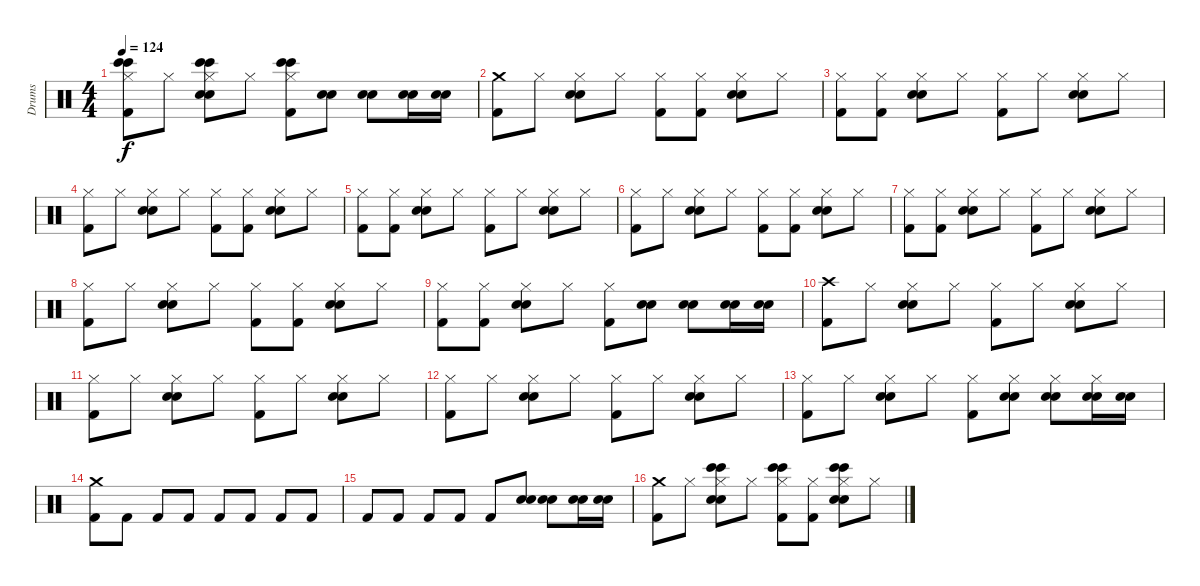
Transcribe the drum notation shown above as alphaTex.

\track ("Drums" "Drums") {instrument percussion}
\staff {score}
\articulation defaults
\ts (4 4)
\tempo 124
\clef neutral
\ks c
("Bongo High (hit)" "Bongo High (hit)" "Hi-Hat (closed)" "Kick (hit) 2").8{dy f} "Hi-Hat (closed)".8 ("Bongo High (hit)" "Electric Snare (hit)" "Snare (hit) 2" "Bongo High (hit)" "Hi-Hat (closed)").8 "Hi-Hat (closed)".8 ("Bongo High (hit)" "Kick (hit) 2" "Bongo High (hit)" "Hi-Hat (closed)").8 ("Snare (hit) 2" "Electric Snare (hit)").8 ("Electric Snare (hit)" "Snare (hit) 2").8 ("Snare (hit) 2" "Electric Snare (hit)").16 ("Snare (hit) 2" "Electric Snare (hit)").16 |
("Crash medium (hit)" "Kick (hit) 2").8 "Hi-Hat (closed)".8 ("Hi-Hat (closed)" "Electric Snare (hit)" "Snare (hit) 2").8 "Hi-Hat (closed)".8 ("Hi-Hat (closed)" "Kick (hit) 2").8 ("Kick (hit) 2" "Hi-Hat (closed)").8 ("Hi-Hat (closed)" "Electric Snare (hit)" "Snare (hit) 2").8 "Hi-Hat (closed)".8 |
("Kick (hit) 2" "Hi-Hat (closed)").8 ("Kick (hit) 2" "Hi-Hat (closed)").8 ("Snare (hit) 2" "Electric Snare (hit)" "Hi-Hat (closed)").8 "Hi-Hat (closed)".8 ("Kick (hit) 2" "Hi-Hat (closed)").8 "Hi-Hat (closed)".8 ("Snare (hit) 2" "Electric Snare (hit)" "Hi-Hat (closed)").8 "Hi-Hat (closed)".8 |
("Hi-Hat (closed)" "Kick (hit) 2").8 "Hi-Hat (closed)".8 ("Snare (hit) 2" "Electric Snare (hit)" "Hi-Hat (closed)").8 "Hi-Hat (closed)".8 ("Kick (hit) 2" "Hi-Hat (closed)").8 ("Kick (hit) 2" "Hi-Hat (closed)").8 ("Snare (hit) 2" "Electric Snare (hit)" "Hi-Hat (closed)").8 "Hi-Hat (closed)".8 |
("Kick (hit) 2" "Hi-Hat (closed)").8 ("Kick (hit) 2" "Hi-Hat (closed)").8 ("Snare (hit) 2" "Electric Snare (hit)" "Hi-Hat (closed)").8 "Hi-Hat (closed)".8 ("Kick (hit) 2" "Hi-Hat (closed)").8 "Hi-Hat (closed)".8 ("Snare (hit) 2" "Electric Snare (hit)" "Hi-Hat (closed)").8 "Hi-Hat (closed)".8 |
("Hi-Hat (closed)" "Kick (hit) 2").8 "Hi-Hat (closed)".8 ("Snare (hit) 2" "Electric Snare (hit)" "Hi-Hat (closed)").8 "Hi-Hat (closed)".8 ("Kick (hit) 2" "Hi-Hat (closed)").8 ("Kick (hit) 2" "Hi-Hat (closed)").8 ("Snare (hit) 2" "Electric Snare (hit)" "Hi-Hat (closed)").8 "Hi-Hat (closed)".8 |
("Kick (hit) 2" "Hi-Hat (closed)").8 ("Kick (hit) 2" "Hi-Hat (closed)").8 ("Snare (hit) 2" "Electric Snare (hit)" "Hi-Hat (closed)").8 "Hi-Hat (closed)".8 ("Kick (hit) 2" "Hi-Hat (closed)").8 "Hi-Hat (closed)".8 ("Snare (hit) 2" "Electric Snare (hit)" "Hi-Hat (closed)").8 "Hi-Hat (closed)".8 |
("Hi-Hat (closed)" "Kick (hit) 2").8 "Hi-Hat (closed)".8 ("Snare (hit) 2" "Electric Snare (hit)" "Hi-Hat (closed)").8 "Hi-Hat (closed)".8 ("Kick (hit) 2" "Hi-Hat (closed)").8 ("Kick (hit) 2" "Hi-Hat (closed)").8 ("Snare (hit) 2" "Electric Snare (hit)" "Hi-Hat (closed)").8 "Hi-Hat (closed)".8 |
("Kick (hit) 2" "Hi-Hat (closed)").8 ("Kick (hit) 2" "Hi-Hat (closed)").8 ("Snare (hit) 2" "Electric Snare (hit)" "Hi-Hat (closed)").8 "Hi-Hat (closed)".8 ("Kick (hit) 2" "Hi-Hat (closed)").8 ("Snare (hit) 2" "Electric Snare (hit)").8 ("Snare (hit) 2" "Electric Snare (hit)").8 ("Snare (hit) 2" "Electric Snare (hit)").16 ("Electric Snare (hit)" "Snare (hit) 2").16 |
("Kick (hit) 2" "Crash high (hit)").8 "Hi-Hat (closed)".8 ("Electric Snare (hit)" "Snare (hit) 2" "Hi-Hat (closed)").8 "Hi-Hat (closed)".8 ("Kick (hit) 2" "Hi-Hat (closed)").8 "Hi-Hat (closed)".8 ("Electric Snare (hit)" "Snare (hit) 2" "Hi-Hat (closed)").8 "Hi-Hat (closed)".8 |
("Kick (hit) 2" "Hi-Hat (closed)").8 "Hi-Hat (closed)".8 ("Electric Snare (hit)" "Snare (hit) 2" "Hi-Hat (closed)").8 "Hi-Hat (closed)".8 ("Kick (hit) 2" "Hi-Hat (closed)").8 "Hi-Hat (closed)".8 ("Electric Snare (hit)" "Snare (hit) 2" "Hi-Hat (closed)").8 "Hi-Hat (closed)".8 |
("Kick (hit) 2" "Hi-Hat (closed)").8 "Hi-Hat (closed)".8 ("Electric Snare (hit)" "Snare (hit) 2" "Hi-Hat (closed)").8 "Hi-Hat (closed)".8 ("Kick (hit) 2" "Hi-Hat (closed)").8 "Hi-Hat (closed)".8 ("Electric Snare (hit)" "Snare (hit) 2" "Hi-Hat (closed)").8 "Hi-Hat (closed)".8 |
("Kick (hit) 2" "Hi-Hat (closed)").8 "Hi-Hat (closed)".8 ("Electric Snare (hit)" "Snare (hit) 2" "Hi-Hat (closed)").8 "Hi-Hat (closed)".8 ("Kick (hit) 2" "Hi-Hat (closed)").8 ("Electric Snare (hit)" "Snare (hit) 2" "Hi-Hat (closed)").8 ("Electric Snare (hit)" "Snare (hit) 2" "Hi-Hat (closed)").8 ("Electric Snare (hit)" "Snare (hit) 2" "Hi-Hat (closed)").16 ("Electric Snare (hit)" "Snare (hit) 2").16 |
("Crash medium (hit)" "Kick (hit) 2").8 "Kick (hit) 2".8 "Kick (hit) 2".8 "Kick (hit) 2".8 "Kick (hit) 2".8 "Kick (hit) 2".8 "Kick (hit) 2".8 "Kick (hit) 2".8 |
"Kick (hit) 2".8 "Kick (hit) 2".8 "Kick (hit) 2".8 "Kick (hit) 2".8 "Kick (hit) 2".8 ("Electric Snare (hit)" "Snare (hit) 2").8 ("Electric Snare (hit)" "Snare (hit) 2").8 ("Electric Snare (hit)" "Snare (hit) 2").16 ("Electric Snare (hit)" "Snare (hit) 2").16 |
("Crash medium (hit)" "Kick (hit) 2").8 "Hi-Hat (closed)".8 ("Bongo High (hit)" "Electric Snare (hit)" "Snare (hit) 2" "Bongo High (hit)" "Hi-Hat (closed)").8 "Hi-Hat (closed)".8 ("Bongo High (hit)" "Kick (hit) 2" "Bongo High (hit)" "Hi-Hat (closed)").8 ("Kick (hit) 2" "Hi-Hat (closed)").8 ("Bongo High (hit)" "Electric Snare (hit)" "Snare (hit) 2" "Bongo High (hit)" "Hi-Hat (closed)").8 "Hi-Hat (closed)".8
